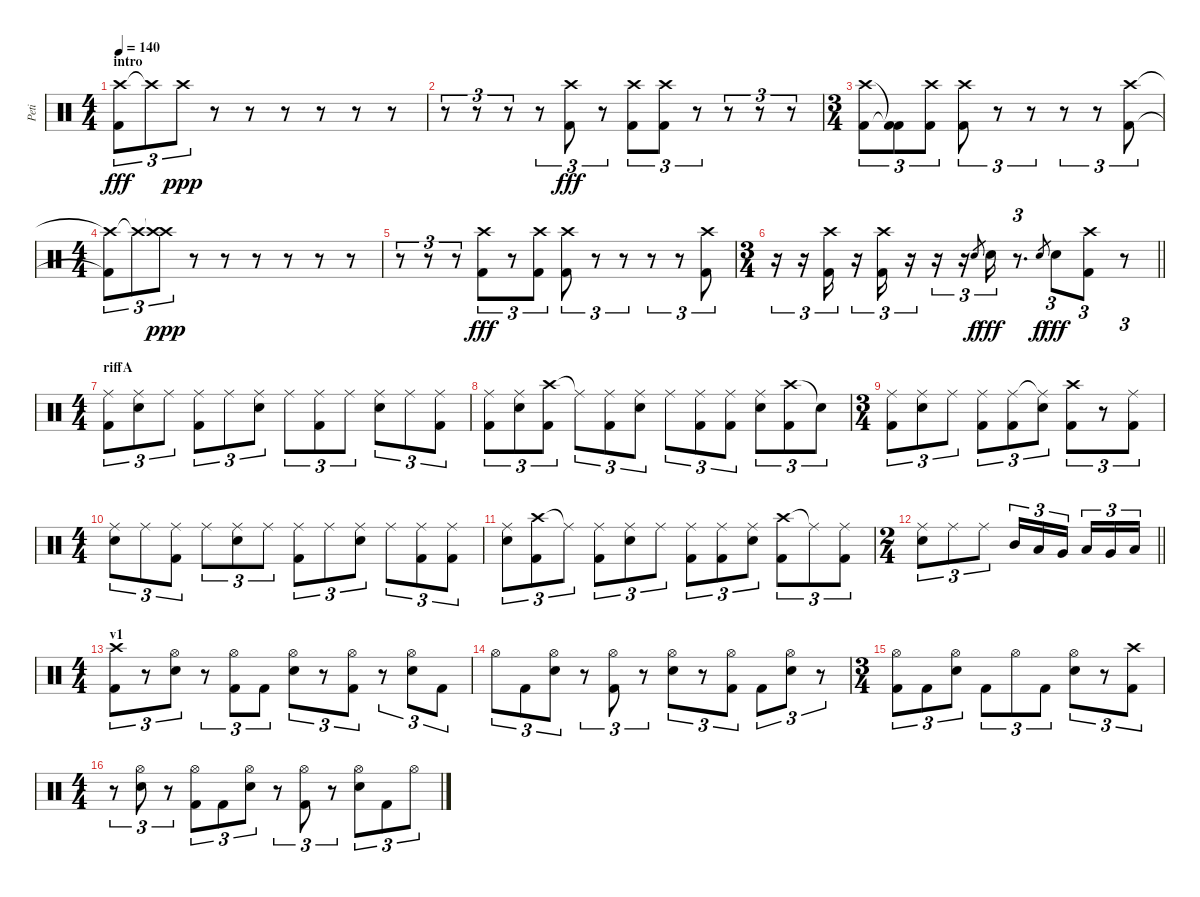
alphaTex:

\track ("Peti" "Peti") {instrument percussion}
\staff {score}
\articulation defaults
\ts (4 4)
\section ("" "intro")
\tempo 140
\clef neutral
\ks c
("Crash high (hit)" "Kick (hit) 2").8{tu (3 2) dy fff} "Crash high (hit)"{t}.8{tu (3 2)} "Crash high (hit)".8{tu (3 2) dy ppp} r.8 r.8 r.8 r.8 r.8 r.8 |
r.8{tu (3 2)} r.8{tu (3 2)} r.8{tu (3 2)} r.8{tu (3 2)} ("Crash high (hit)" "Kick (hit) 2").8{tu (3 2) dy fff} r.8{tu (3 2)} ("Crash high (hit)" "Kick (hit) 2").8{tu (3 2)} ("Crash high (hit)" "Kick (hit) 2").8{tu (3 2)} r.8{tu (3 2)} r.8{tu (3 2)} r.8{tu (3 2)} r.8{tu (3 2)} |
\ts (3 4)
("Crash high (hit)" "Kick (hit) 2").8{tu (3 2)} ("Kick (hit) 2"{t} "Kick (hit) 2"{t}).8{tu (3 2)} ("Crash high (hit)" "Kick (hit) 2").8{tu (3 2)} ("Crash high (hit)" "Kick (hit) 2").8{tu (3 2)} r.8{tu (3 2)} r.8{tu (3 2)} r.8{tu (3 2)} r.8{tu (3 2)} ("Crash high (hit)" "Kick (hit) 2").8{tu (3 2)} |
\ts (4 4)
("Crash high (hit)"{t} "Kick (hit) 2"{t}).8{tu (3 2)} "Crash high (hit)"{t}.8{tu (3 2)} ("Crash high (hit)"{t} "Crash high (hit)").8{tu (3 2) dy ppp} r.8 r.8 r.8 r.8 r.8 r.8 |
r.8{tu (3 2)} r.8{tu (3 2)} r.8{tu (3 2)} ("Crash high (hit)" "Kick (hit) 2").8{tu (3 2) dy fff} r.8{tu (3 2)} ("Crash high (hit)" "Kick (hit) 2").8{tu (3 2)} ("Crash high (hit)" "Kick (hit) 2").8{tu (3 2)} r.8{tu (3 2)} r.8{tu (3 2)} r.8{tu (3 2)} r.8{tu (3 2)} ("Crash high (hit)" "Kick (hit) 2").8{tu (3 2)} |
\ts (3 4)
\barLineRight lightlight
r.16{tu (3 2)} r.16{tu (3 2)} ("Crash high (hit)" "Kick (hit) 2").16{tu (3 2)} r.16{tu (3 2)} ("Crash high (hit)" "Kick (hit) 2").16{tu (3 2)} r.16{tu (3 2)} r.16{tu (3 2)} r.16{tu (3 2)} "Snare (hit) 2".8{gr dy f} "Snare (hit) 2".16{tu (3 2) dy fff} r.8{d tu (3 2)} "Snare (hit) 2".8{gr dy f} "Snare (hit) 2".8{tu (3 2) dy fff} ("Kick (hit) 2" "Crash high (hit)").8{tu (3 2)} r.8{tu (3 2)} |
\ts (4 4)
\section ("" "riffA")
("Ride (middle)" "Kick (hit) 2").8{tu (3 2)} ("Ride (middle)" "Snare (hit) 2").8{tu (3 2)} "Ride (middle)".8{tu (3 2)} ("Ride (middle)" "Kick (hit) 2").8{tu (3 2)} "Ride (middle)".8{tu (3 2)} ("Ride (middle)" "Snare (hit) 2").8{tu (3 2)} "Ride (middle)".8{tu (3 2)} ("Ride (middle)" "Kick (hit) 2").8{tu (3 2)} "Ride (middle)".8{tu (3 2)} ("Ride (middle)" "Snare (hit) 2").8{tu (3 2)} "Ride (middle)".8{tu (3 2)} ("Ride (middle)" "Kick (hit) 2").8{tu (3 2)} |
("Ride (middle)" "Kick (hit) 2").8{tu (3 2)} ("Ride (middle)" "Snare (hit) 2").8{tu (3 2)} ("Crash high (hit)" "Kick (hit) 2").8{tu (3 2)} "Ride (middle)"{t}.8{tu (3 2)} ("Ride (middle)" "Kick (hit) 2").8{tu (3 2)} ("Ride (middle)" "Snare (hit) 2").8{tu (3 2)} "Ride (middle)".8{tu (3 2)} ("Ride (middle)" "Kick (hit) 2").8{tu (3 2)} ("Ride (middle)" "Kick (hit) 2").8{tu (3 2)} ("Ride (middle)" "Snare (hit) 2").8{tu (3 2)} ("Crash high (hit)" "Kick (hit) 2").8{tu (3 2)} "Snare (hit)"{t}.8{tu (3 2)} |
\ts (3 4)
("Ride (middle)" "Kick (hit) 2").8{tu (3 2)} ("Ride (middle)" "Snare (hit) 2").8{tu (3 2)} "Ride (middle)".8{tu (3 2)} ("Ride (middle)" "Kick (hit) 2").8{tu (3 2)} ("Ride (middle)" "Kick (hit) 2").8{tu (3 2)} ("Ride (middle)"{t} "Snare (hit) 2").8{tu (3 2)} ("Crash high (hit)" "Kick (hit) 2").8{tu (3 2)} r.8{tu (3 2)} ("Ride (middle)" "Kick (hit) 2").8{tu (3 2)} |
\ts (4 4)
("Ride (middle)" "Snare (hit) 2").8{tu (3 2)} "Ride (middle)".8{tu (3 2)} ("Ride (middle)" "Kick (hit) 2").8{tu (3 2)} "Ride (middle)".8{tu (3 2)} ("Ride (middle)" "Snare (hit) 2").8{tu (3 2)} "Ride (middle)".8{tu (3 2)} ("Ride (middle)" "Kick (hit) 2").8{tu (3 2)} "Ride (middle)".8{tu (3 2)} ("Ride (middle)" "Snare (hit) 2").8{tu (3 2)} "Ride (middle)".8{tu (3 2)} ("Ride (middle)" "Kick (hit) 2").8{tu (3 2)} ("Ride (middle)" "Kick (hit) 2").8{tu (3 2)} |
("Ride (middle)" "Snare (hit) 2").8{tu (3 2)} ("Crash high (hit)" "Kick (hit) 2").8{tu (3 2)} "Ride (middle)"{t}.8{tu (3 2)} ("Ride (middle)" "Kick (hit) 2").8{tu (3 2)} ("Ride (middle)" "Snare (hit) 2").8{tu (3 2)} "Ride (middle)".8{tu (3 2)} ("Ride (middle)" "Kick (hit) 2").8{tu (3 2)} ("Ride (middle)" "Kick (hit) 2").8{tu (3 2)} ("Ride (middle)" "Snare (hit) 2").8{tu (3 2)} ("Crash high (hit)" "Kick (hit) 2").8{tu (3 2)} "Ride (middle)"{t}.8{tu (3 2)} ("Ride (middle)" "Kick (hit) 2").8{tu (3 2)} |
\ts (2 4)
\barLineRight lightlight
("Ride (middle)" "Snare (hit) 2").8{tu (3 2)} "Ride (middle)".8{tu (3 2)} "Ride (middle)".8{tu (3 2)} "Mid Tom (hit)".16{tu (3 2)} "Low Tom (hit)".16{tu (3 2)} "Very Low Tom (hit)".16{tu (3 2)} "Low Tom (hit)".16{tu (3 2)} "Very Low Tom (hit)".16{tu (3 2)} "Low Floor Tom (hit)".16{tu (3 2)} |
\ts (4 4)
\section ("" "v1")
("Crash high (hit)" "Kick (hit) 2").8{tu (3 2)} r.8{tu (3 2)} ("Hi-Hat (open)" "Snare (hit) 2").8{tu (3 2)} r.8{tu (3 2)} ("Hi-Hat (open)" "Kick (hit) 2").8{tu (3 2)} "Kick (hit) 2".8{tu (3 2)} ("Hi-Hat (open)" "Snare (hit) 2").8{tu (3 2)} r.8{tu (3 2)} ("Hi-Hat (open)" "Kick (hit) 2").8{tu (3 2)} r.8{tu (3 2)} ("Hi-Hat (open)" "Snare (hit) 2").8{tu (3 2)} "Kick (hit) 2".8{tu (3 2)} |
"Hi-Hat (open)".8{tu (3 2)} "Kick (hit) 2".8{tu (3 2)} ("Hi-Hat (open)" "Snare (hit) 2").8{tu (3 2)} r.8{tu (3 2)} ("Hi-Hat (open)" "Kick (hit) 2").8{tu (3 2)} r.8{tu (3 2)} ("Hi-Hat (open)" "Snare (hit) 2").8{tu (3 2)} r.8{tu (3 2)} ("Hi-Hat (open)" "Kick (hit) 2").8{tu (3 2)} "Kick (hit) 2".8{tu (3 2)} ("Hi-Hat (open)" "Snare (hit) 2").8{tu (3 2)} r.8{tu (3 2)} |
\ts (3 4)
("Hi-Hat (open)" "Kick (hit) 2").8{tu (3 2)} "Kick (hit) 2".8{tu (3 2)} ("Hi-Hat (open)" "Snare (hit) 2").8{tu (3 2)} "Kick (hit) 2".8{tu (3 2)} "Hi-Hat (open)".8{tu (3 2)} "Kick (hit) 2".8{tu (3 2)} ("Hi-Hat (open)" "Snare (hit) 2").8{tu (3 2)} r.8{tu (3 2)} ("Crash high (hit)" "Kick (hit) 2").8{tu (3 2)} |
\ts (4 4)
r.8{tu (3 2)} ("Hi-Hat (open)" "Snare (hit) 2").8{tu (3 2)} r.8{tu (3 2)} ("Hi-Hat (open)" "Kick (hit) 2").8{tu (3 2)} "Kick (hit) 2".8{tu (3 2)} ("Hi-Hat (open)" "Snare (hit) 2").8{tu (3 2)} r.8{tu (3 2)} ("Hi-Hat (open)" "Kick (hit) 2").8{tu (3 2)} r.8{tu (3 2)} ("Hi-Hat (open)" "Snare (hit) 2").8{tu (3 2)} "Kick (hit) 2".8{tu (3 2)} "Hi-Hat (open)".8{tu (3 2)}
